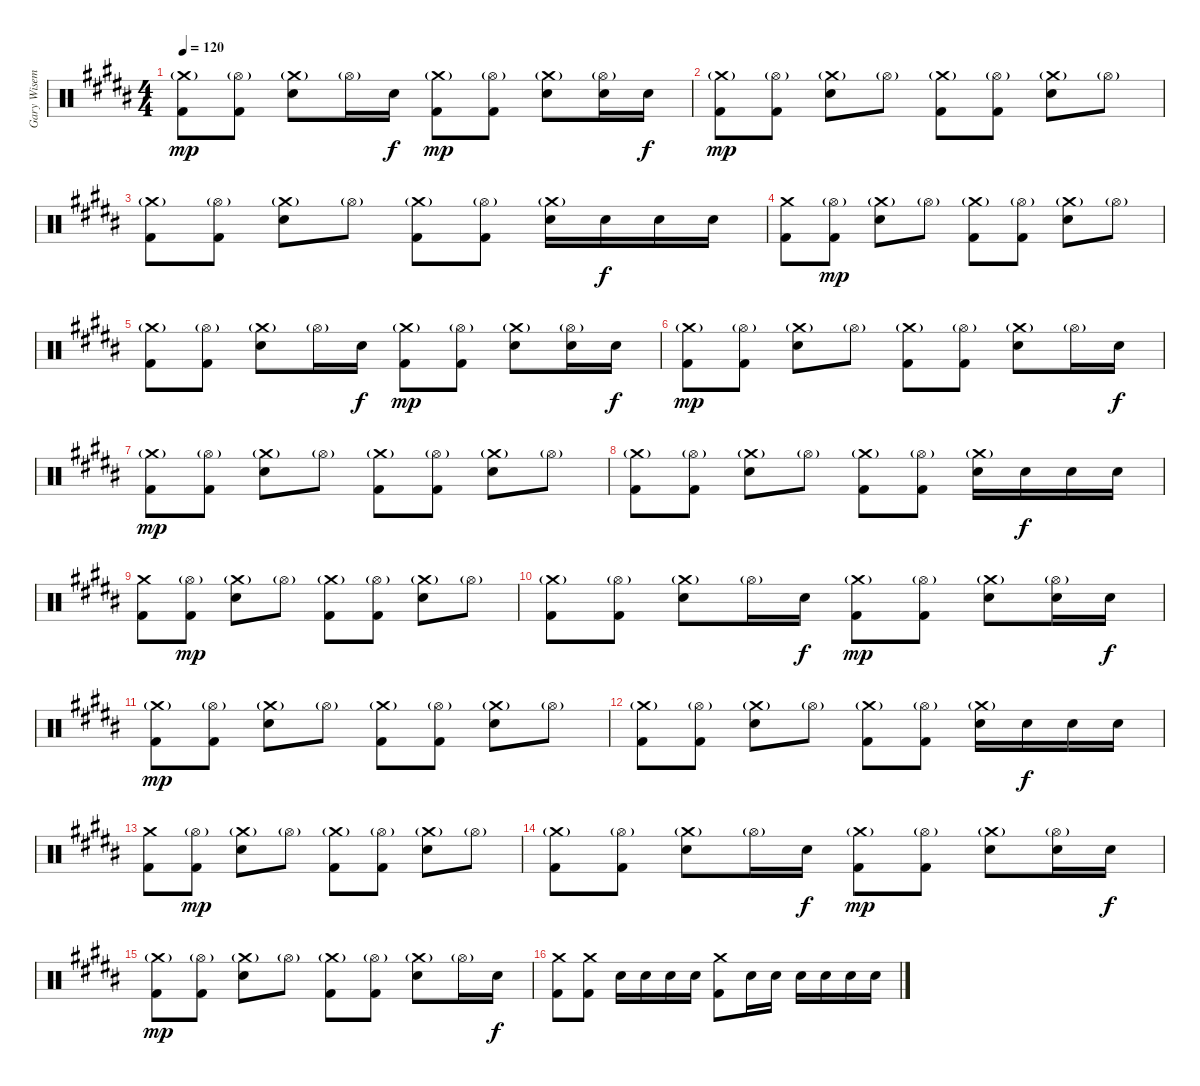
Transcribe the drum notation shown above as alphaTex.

\track ("Gary Wiseman - Drums" "Gary Wisem") {instrument percussion}
\staff {score}
\articulation defaults
\ts (4 4)
\tempo 120
\clef neutral
\ks b
("Crash medium (hit)"{g} "Kick (hit) 2").8{dy mp} ("Hi-Hat (open)"{g} "Kick (hit) 2").8 ("Crash medium (hit)"{g} "Electric Snare (hit)").8 "Hi-Hat (open)"{g}.16 "Electric Snare (hit)".16{dy f} ("Crash medium (hit)"{g} "Kick (hit) 2").8{dy mp} ("Hi-Hat (open)"{g} "Kick (hit) 2").8 ("Crash medium (hit)"{g} "Electric Snare (hit)").8 ("Hi-Hat (open)"{g} "Electric Snare (hit)").16 "Electric Snare (hit)".16{dy f} |
("Crash medium (hit)"{g} "Kick (hit) 2").8{dy mp} ("Hi-Hat (open)"{g} "Kick (hit) 2").8 ("Crash medium (hit)"{g} "Electric Snare (hit)").8 "Hi-Hat (open)"{g}.8 ("Crash medium (hit)"{g} "Kick (hit) 2").8 ("Hi-Hat (open)"{g} "Kick (hit) 2").8 ("Crash medium (hit)"{g} "Electric Snare (hit)").8 "Hi-Hat (open)"{g}.8 |
("Crash medium (hit)"{g} "Kick (hit) 2").8 ("Hi-Hat (open)"{g} "Kick (hit) 2").8 ("Crash medium (hit)"{g} "Electric Snare (hit)").8 "Hi-Hat (open)"{g}.8 ("Crash medium (hit)"{g} "Kick (hit) 2").8 ("Hi-Hat (open)"{g} "Kick (hit) 2").8 ("Crash medium (hit)"{g} "Electric Snare (hit)").16 "Electric Snare (hit)".16{dy f} "Electric Snare (hit)".16 "Electric Snare (hit)".16 |
("Crash medium (hit)" "Kick (hit) 2").8 ("Hi-Hat (open)"{g} "Kick (hit) 2").8{dy mp} ("Crash medium (hit)"{g} "Electric Snare (hit)").8 "Hi-Hat (open)"{g}.8 ("Crash medium (hit)"{g} "Kick (hit) 2").8 ("Hi-Hat (open)"{g} "Kick (hit) 2").8 ("Crash medium (hit)"{g} "Electric Snare (hit)").8 "Hi-Hat (open)"{g}.8 |
("Crash medium (hit)"{g} "Kick (hit) 2").8 ("Hi-Hat (open)"{g} "Kick (hit) 2").8 ("Crash medium (hit)"{g} "Electric Snare (hit)").8 "Hi-Hat (open)"{g}.16 "Electric Snare (hit)".16{dy f} ("Crash medium (hit)"{g} "Kick (hit) 2").8{dy mp} ("Hi-Hat (open)"{g} "Kick (hit) 2").8 ("Crash medium (hit)"{g} "Electric Snare (hit)").8 ("Hi-Hat (open)"{g} "Electric Snare (hit)").16 "Electric Snare (hit)".16{dy f} |
("Crash medium (hit)"{g} "Kick (hit) 2").8{dy mp} ("Hi-Hat (open)"{g} "Kick (hit) 2").8 ("Crash medium (hit)"{g} "Electric Snare (hit)").8 "Hi-Hat (open)"{g}.8 ("Crash medium (hit)"{g} "Kick (hit) 2").8 ("Hi-Hat (open)"{g} "Kick (hit) 2").8 ("Crash medium (hit)"{g} "Electric Snare (hit)").8 "Hi-Hat (open)"{g}.16 "Electric Snare (hit)".16{dy f} |
("Crash medium (hit)"{g} "Kick (hit) 2").8{dy mp} ("Hi-Hat (open)"{g} "Kick (hit) 2").8 ("Crash medium (hit)"{g} "Electric Snare (hit)").8 "Hi-Hat (open)"{g}.8 ("Crash medium (hit)"{g} "Kick (hit) 2").8 ("Hi-Hat (open)"{g} "Kick (hit) 2").8 ("Crash medium (hit)"{g} "Electric Snare (hit)").8 "Hi-Hat (open)"{g}.8 |
("Crash medium (hit)"{g} "Kick (hit) 2").8 ("Hi-Hat (open)"{g} "Kick (hit) 2").8 ("Crash medium (hit)"{g} "Electric Snare (hit)").8 "Hi-Hat (open)"{g}.8 ("Crash medium (hit)"{g} "Kick (hit) 2").8 ("Hi-Hat (open)"{g} "Kick (hit) 2").8 ("Crash medium (hit)"{g} "Electric Snare (hit)").16 "Electric Snare (hit)".16{dy f} "Electric Snare (hit)".16 "Electric Snare (hit)".16 |
("Crash medium (hit)" "Kick (hit) 2").8 ("Hi-Hat (open)"{g} "Kick (hit) 2").8{dy mp} ("Crash medium (hit)"{g} "Electric Snare (hit)").8 "Hi-Hat (open)"{g}.8 ("Crash medium (hit)"{g} "Kick (hit) 2").8 ("Hi-Hat (open)"{g} "Kick (hit) 2").8 ("Crash medium (hit)"{g} "Electric Snare (hit)").8 "Hi-Hat (open)"{g}.8 |
("Crash medium (hit)"{g} "Kick (hit) 2").8 ("Hi-Hat (open)"{g} "Kick (hit) 2").8 ("Crash medium (hit)"{g} "Electric Snare (hit)").8 "Hi-Hat (open)"{g}.16 "Electric Snare (hit)".16{dy f} ("Crash medium (hit)"{g} "Kick (hit) 2").8{dy mp} ("Hi-Hat (open)"{g} "Kick (hit) 2").8 ("Crash medium (hit)"{g} "Electric Snare (hit)").8 ("Hi-Hat (open)"{g} "Electric Snare (hit)").16 "Electric Snare (hit)".16{dy f} |
("Crash medium (hit)"{g} "Kick (hit) 2").8{dy mp} ("Hi-Hat (open)"{g} "Kick (hit) 2").8 ("Crash medium (hit)"{g} "Electric Snare (hit)").8 "Hi-Hat (open)"{g}.8 ("Crash medium (hit)"{g} "Kick (hit) 2").8 ("Hi-Hat (open)"{g} "Kick (hit) 2").8 ("Crash medium (hit)"{g} "Electric Snare (hit)").8 "Hi-Hat (open)"{g}.8 |
("Crash medium (hit)"{g} "Kick (hit) 2").8 ("Hi-Hat (open)"{g} "Kick (hit) 2").8 ("Crash medium (hit)"{g} "Electric Snare (hit)").8 "Hi-Hat (open)"{g}.8 ("Crash medium (hit)"{g} "Kick (hit) 2").8 ("Hi-Hat (open)"{g} "Kick (hit) 2").8 ("Crash medium (hit)"{g} "Electric Snare (hit)").16 "Electric Snare (hit)".16{dy f} "Electric Snare (hit)".16 "Electric Snare (hit)".16 |
("Crash medium (hit)" "Kick (hit) 2").8 ("Hi-Hat (open)"{g} "Kick (hit) 2").8{dy mp} ("Crash medium (hit)"{g} "Electric Snare (hit)").8 "Hi-Hat (open)"{g}.8 ("Crash medium (hit)"{g} "Kick (hit) 2").8 ("Hi-Hat (open)"{g} "Kick (hit) 2").8 ("Crash medium (hit)"{g} "Electric Snare (hit)").8 "Hi-Hat (open)"{g}.8 |
("Crash medium (hit)"{g} "Kick (hit) 2").8 ("Hi-Hat (open)"{g} "Kick (hit) 2").8 ("Crash medium (hit)"{g} "Electric Snare (hit)").8 "Hi-Hat (open)"{g}.16 "Electric Snare (hit)".16{dy f} ("Crash medium (hit)"{g} "Kick (hit) 2").8{dy mp} ("Hi-Hat (open)"{g} "Kick (hit) 2").8 ("Crash medium (hit)"{g} "Electric Snare (hit)").8 ("Hi-Hat (open)"{g} "Electric Snare (hit)").16 "Electric Snare (hit)".16{dy f} |
("Crash medium (hit)"{g} "Kick (hit) 2").8{dy mp} ("Hi-Hat (open)"{g} "Kick (hit) 2").8 ("Crash medium (hit)"{g} "Electric Snare (hit)").8 "Hi-Hat (open)"{g}.8 ("Crash medium (hit)"{g} "Kick (hit) 2").8 ("Hi-Hat (open)"{g} "Kick (hit) 2").8 ("Crash medium (hit)"{g} "Electric Snare (hit)").8 "Hi-Hat (open)"{g}.16 "Electric Snare (hit)".16{dy f} |
("Crash medium (hit)" "Kick (hit) 2").8 ("Crash medium (hit)" "Kick (hit) 2").8 "Electric Snare (hit)".16 "Electric Snare (hit)".16 "Electric Snare (hit)".16 "Electric Snare (hit)".16 ("Crash medium (hit)" "Kick (hit) 2").8 "Electric Snare (hit)".16 "Electric Snare (hit)".16 "Electric Snare (hit)".16 "Electric Snare (hit)".16 "Electric Snare (hit)".16 "Electric Snare (hit)".16
